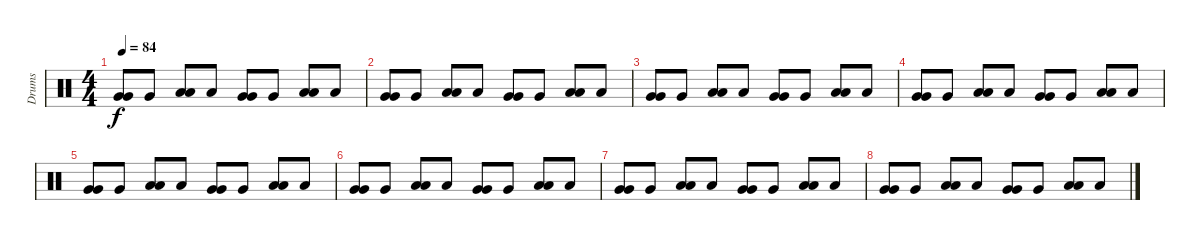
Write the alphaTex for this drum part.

\track ("Drums" "Drums") {instrument percussion}
\staff {score}
\articulation defaults
\ts (4 4)
\tempo 84
\clef neutral
\ks c
("Very Low Tom (hit)" "Very Low Tom (hit)").8{dy f volume 13 balance 8} "Very Low Tom (hit)".8 ("Low Tom (hit)" "Low Tom (hit)").8 "Low Tom (hit)".8 ("Very Low Tom (hit)" "Very Low Tom (hit)").8 "Very Low Tom (hit)".8 ("Low Tom (hit)" "Low Tom (hit)").8 "Low Tom (hit)".8 |
("Very Low Tom (hit)" "Very Low Tom (hit)").8 "Very Low Tom (hit)".8 ("Low Tom (hit)" "Low Tom (hit)").8 "Low Tom (hit)".8 ("Very Low Tom (hit)" "Very Low Tom (hit)").8 "Very Low Tom (hit)".8 ("Low Tom (hit)" "Low Tom (hit)").8 "Low Tom (hit)".8 |
("Very Low Tom (hit)" "Very Low Tom (hit)").8 "Very Low Tom (hit)".8 ("Low Tom (hit)" "Low Tom (hit)").8 "Low Tom (hit)".8 ("Very Low Tom (hit)" "Very Low Tom (hit)").8 "Very Low Tom (hit)".8 ("Low Tom (hit)" "Low Tom (hit)").8 "Low Tom (hit)".8 |
("Very Low Tom (hit)" "Very Low Tom (hit)").8 "Very Low Tom (hit)".8 ("Low Tom (hit)" "Low Tom (hit)").8 "Low Tom (hit)".8 ("Very Low Tom (hit)" "Very Low Tom (hit)").8 "Very Low Tom (hit)".8 ("Low Tom (hit)" "Low Tom (hit)").8 "Low Tom (hit)".8 |
("Very Low Tom (hit)" "Very Low Tom (hit)").8 "Very Low Tom (hit)".8 ("Low Tom (hit)" "Low Tom (hit)").8 "Low Tom (hit)".8 ("Very Low Tom (hit)" "Very Low Tom (hit)").8 "Very Low Tom (hit)".8 ("Low Tom (hit)" "Low Tom (hit)").8 "Low Tom (hit)".8 |
("Very Low Tom (hit)" "Very Low Tom (hit)").8 "Very Low Tom (hit)".8 ("Low Tom (hit)" "Low Tom (hit)").8 "Low Tom (hit)".8 ("Very Low Tom (hit)" "Very Low Tom (hit)").8 "Very Low Tom (hit)".8 ("Low Tom (hit)" "Low Tom (hit)").8 "Low Tom (hit)".8 |
("Very Low Tom (hit)" "Very Low Tom (hit)").8 "Very Low Tom (hit)".8 ("Low Tom (hit)" "Low Tom (hit)").8 "Low Tom (hit)".8 ("Very Low Tom (hit)" "Very Low Tom (hit)").8 "Very Low Tom (hit)".8 ("Low Tom (hit)" "Low Tom (hit)").8 "Low Tom (hit)".8 |
("Very Low Tom (hit)" "Very Low Tom (hit)").8 "Very Low Tom (hit)".8 ("Low Tom (hit)" "Low Tom (hit)").8 "Low Tom (hit)".8 ("Very Low Tom (hit)" "Very Low Tom (hit)").8 "Very Low Tom (hit)".8 ("Low Tom (hit)" "Low Tom (hit)").8 "Low Tom (hit)".8
